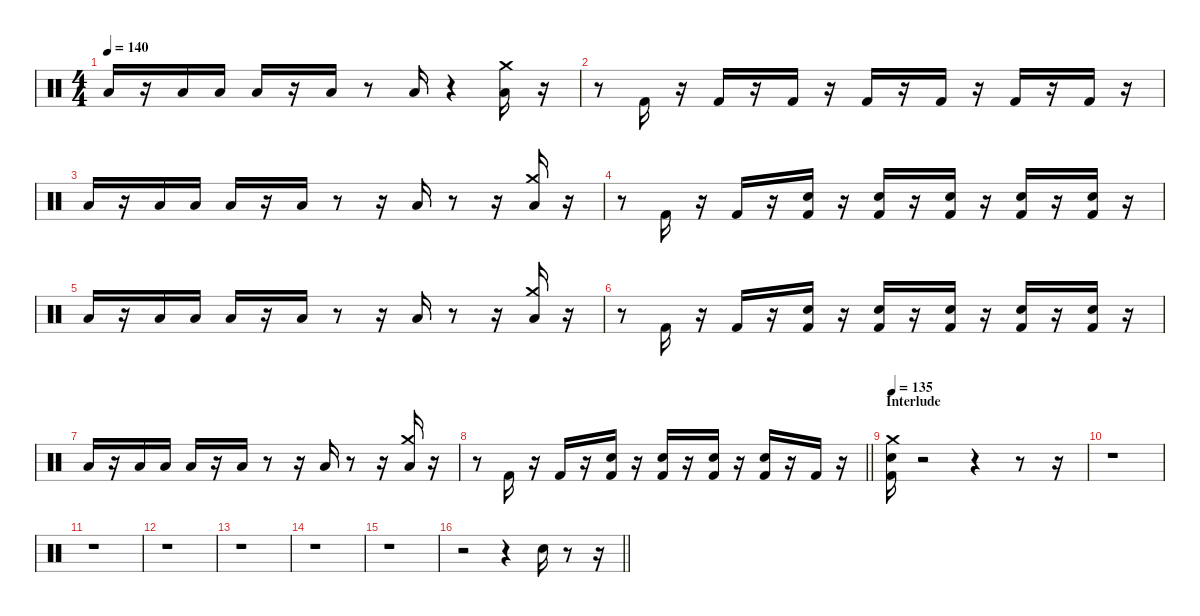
\defaultSystemsLayout 4
\hideDynamics
\bracketExtendMode nobrackets
\singleTrackTrackNamePolicy hidden
\multiTrackTrackNamePolicy hidden
\firstSystemTrackNameMode fullname
\firstSystemTrackNameOrientation horizontal
\otherSystemsTrackNameOrientation horizontal
\track ("John Bonham" "drm.") {instrument percussion}
\staff {score}
\articulation defaults
\ts (4 4)
\tempo 140
\clef neutral
\ks aminor "Low Floor Tom (hit)".16{dy f beam Up}
r.16{beam Up} "Low Floor Tom (hit)".16{beam Up} "Low Floor Tom (hit)".16{beam Up} "Low Floor Tom (hit)".16{beam Up} r.16{beam Up} "Low Floor Tom (hit)".16{beam Up} r.8{beam Up} "Low Floor Tom (hit)".16{beam Up} r.4{beam Up} ("Low Floor Tom (hit)" "Crash medium (hit)").16{beam Down} r.16{beam Down} |
r.8{beam Down} "Kick (hit) 2".16{beam Up} r.16{beam Up} "Kick (hit) 2".16{beam Up} r.16{beam Up} "Kick (hit) 2".16{beam Up} r.16{beam Up} "Kick (hit) 2".16{beam Up} r.16{beam Up} "Kick (hit) 2".16{beam Up} r.16{beam Up} "Kick (hit) 2".16{beam Up} r.16{beam Up} "Kick (hit) 2".16{beam Up} r.16{beam Up} |
"Low Floor Tom (hit)".16{beam Up} r.16{beam Up} "Low Floor Tom (hit)".16{beam Up} "Low Floor Tom (hit)".16{beam Up} "Low Floor Tom (hit)".16{beam Up} r.16{beam Up} "Low Floor Tom (hit)".16{beam Up} r.8{beam Up} r.16{beam Up} "Low Floor Tom (hit)".16{beam Up} r.8{beam Up} r.16{beam Up} ("Low Floor Tom (hit)" "Crash medium (hit)").16{beam Down} r.16{beam Down} |
r.8{beam Down} "Kick (hit) 2".16{beam Up} r.16{beam Up} "Kick (hit) 2".16{beam Up} r.16{beam Up} ("Kick (hit) 2" "Snare (hit) 2").16{beam Up} r.16{beam Up} ("Kick (hit) 2" "Snare (hit) 2").16{beam Up} r.16{beam Up} ("Kick (hit) 2" "Snare (hit) 2").16{beam Up} r.16{beam Up} ("Kick (hit) 2" "Snare (hit) 2").16{beam Up} r.16{beam Up} ("Kick (hit) 2" "Snare (hit) 2").16{beam Up} r.16{beam Up} |
"Low Floor Tom (hit)".16{beam Up} r.16{beam Up} "Low Floor Tom (hit)".16{beam Up} "Low Floor Tom (hit)".16{beam Up} "Low Floor Tom (hit)".16{beam Up} r.16{beam Up} "Low Floor Tom (hit)".16{beam Up} r.8{beam Up} r.16{beam Up} "Low Floor Tom (hit)".16{beam Up} r.8{beam Up} r.16{beam Up} ("Low Floor Tom (hit)" "Crash medium (hit)").16{beam Down} r.16{beam Down} |
r.8{beam Down} "Kick (hit) 2".16{beam Up} r.16{beam Up} "Kick (hit) 2".16{beam Up} r.16{beam Up} ("Kick (hit) 2" "Snare (hit) 2").16{beam Up} r.16{beam Up} ("Kick (hit) 2" "Snare (hit) 2").16{beam Up} r.16{beam Up} ("Kick (hit) 2" "Snare (hit) 2").16{beam Up} r.16{beam Up} ("Kick (hit) 2" "Snare (hit) 2").16{beam Up} r.16{beam Up} ("Kick (hit) 2" "Snare (hit) 2").16{beam Up} r.16{beam Up} |
"Low Floor Tom (hit)".16{beam Up} r.16{beam Up} "Low Floor Tom (hit)".16{beam Up} "Low Floor Tom (hit)".16{beam Up} "Low Floor Tom (hit)".16{beam Up} r.16{beam Up} "Low Floor Tom (hit)".16{beam Up} r.8{beam Up} r.16{beam Up} "Low Floor Tom (hit)".16{beam Up} r.8{beam Up} r.16{beam Up} ("Low Floor Tom (hit)" "Crash medium (hit)").16{beam Down} r.16{beam Down} |
\barLineRight lightlight
r.8{beam Down} "Kick (hit) 2".16{beam Up} r.16{beam Up} "Kick (hit) 2".16{beam Up} r.16{beam Up} ("Kick (hit) 2" "Snare (hit) 2").16{beam Up} r.16{beam Up} ("Kick (hit) 2" "Snare (hit) 2").16{beam Up} r.16{beam Up} ("Kick (hit) 2" "Snare (hit) 2").16{beam Up} r.16{beam Up} ("Kick (hit) 2" "Snare (hit) 2").16{beam Up} r.16{beam Up} "Kick (hit) 2".16{beam Up} r.16{beam Up} |
\section ("" "Interlude")
\tempo 135
("Kick (hit) 2" "Crash medium (hit)" "Snare (hit) 2").16{beam Down} r.2{beam Down} r.4{beam Down} r.8{beam Down} r.16{beam Down} |
r.1{beam Down} |
r.1{beam Down} |
r.1{beam Down} |
r.1{beam Down} |
r.1{beam Down} |
r.1{beam Down} |
\barLineRight lightlight
r.2{beam Down} r.4{beam Down} "Snare (hit) 2".16{beam Down} r.8{beam Down} r.16{beam Down}
